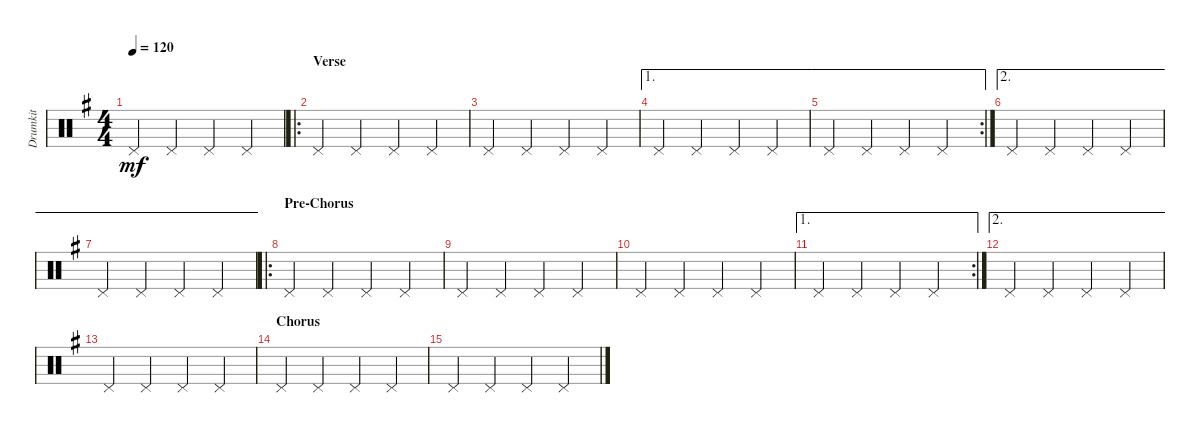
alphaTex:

\track ("Drumkit" "Drumkit") {mute instrument percussion}
\staff {score}
\articulation defaults
\ts (4 4)
\tempo 120
\clef neutral
\ks g "Pedal Hi-Hat (hit)".4{dy mf} "Pedal Hi-Hat (hit)".4 "Pedal Hi-Hat (hit)".4 "Pedal Hi-Hat (hit)".4
|
\ro
\section ("" "Verse")
"Pedal Hi-Hat (hit)".4 "Pedal Hi-Hat (hit)".4 "Pedal Hi-Hat (hit)".4 "Pedal Hi-Hat (hit)".4 |
"Pedal Hi-Hat (hit)".4 "Pedal Hi-Hat (hit)".4 "Pedal Hi-Hat (hit)".4 "Pedal Hi-Hat (hit)".4 |
\ae 1 "Pedal Hi-Hat (hit)".4 "Pedal Hi-Hat (hit)".4 "Pedal Hi-Hat (hit)".4 "Pedal Hi-Hat (hit)".4
|
\ae 1
\rc 2 "Pedal Hi-Hat (hit)".4 "Pedal Hi-Hat (hit)".4 "Pedal Hi-Hat (hit)".4 "Pedal Hi-Hat (hit)".4
|
\ae 2 "Pedal Hi-Hat (hit)".4 "Pedal Hi-Hat (hit)".4 "Pedal Hi-Hat (hit)".4 "Pedal Hi-Hat (hit)".4
|
\ae 2 "Pedal Hi-Hat (hit)".4 "Pedal Hi-Hat (hit)".4 "Pedal Hi-Hat (hit)".4 "Pedal Hi-Hat (hit)".4
|
\ro
\section ("" "Pre-Chorus")
"Pedal Hi-Hat (hit)".4 "Pedal Hi-Hat (hit)".4 "Pedal Hi-Hat (hit)".4 "Pedal Hi-Hat (hit)".4 |
"Pedal Hi-Hat (hit)".4 "Pedal Hi-Hat (hit)".4 "Pedal Hi-Hat (hit)".4 "Pedal Hi-Hat (hit)".4 |
"Pedal Hi-Hat (hit)".4 "Pedal Hi-Hat (hit)".4 "Pedal Hi-Hat (hit)".4 "Pedal Hi-Hat (hit)".4 |
\ae 1
\rc 2 "Pedal Hi-Hat (hit)".4 "Pedal Hi-Hat (hit)".4 "Pedal Hi-Hat (hit)".4 "Pedal Hi-Hat (hit)".4
|
\ae 2 "Pedal Hi-Hat (hit)".4 "Pedal Hi-Hat (hit)".4 "Pedal Hi-Hat (hit)".4 "Pedal Hi-Hat (hit)".4
|
"Pedal Hi-Hat (hit)".4 "Pedal Hi-Hat (hit)".4 "Pedal Hi-Hat (hit)".4 "Pedal Hi-Hat (hit)".4 |
\section ("" "Chorus")
"Pedal Hi-Hat (hit)".4 "Pedal Hi-Hat (hit)".4 "Pedal Hi-Hat (hit)".4 "Pedal Hi-Hat (hit)".4 |
"Pedal Hi-Hat (hit)".4 "Pedal Hi-Hat (hit)".4 "Pedal Hi-Hat (hit)".4 "Pedal Hi-Hat (hit)".4
